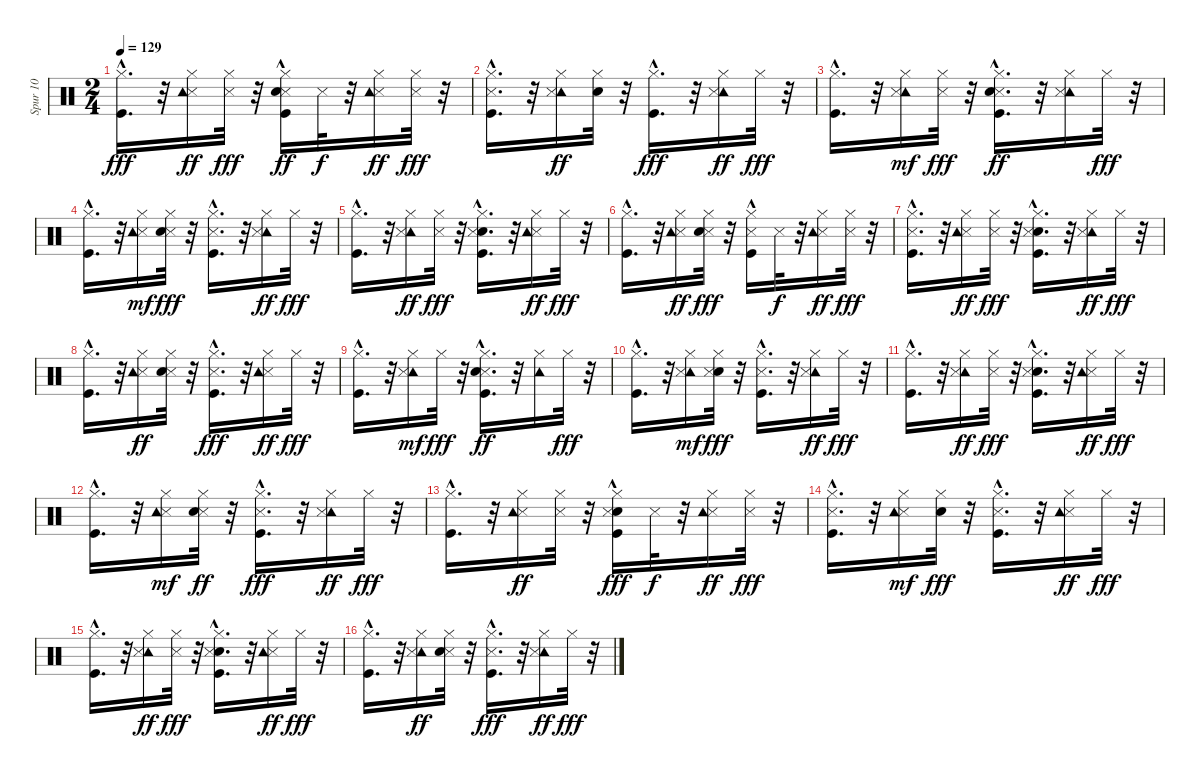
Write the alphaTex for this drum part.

\track ("Spur 10" "Spur 10") {instrument percussion}
\staff {score}
\articulation defaults
\ts (2 4)
\tempo 129
\clef neutral
\ks c
("Hi-Hat (closed)" "Kick (hit)"{hac}).16{d dy fff} r.32 ("Snare (side stick) 3" "Tambourine (hit)" "Hi-Hat (closed)").16{dy ff} ("Snare (side stick) 3" "Hi-Hat (closed)").32{dy fff} r.32 ("Snare (side stick) 3" "Kick (hit)"{hac} "Snare (hit) 2" "Hi-Hat (closed)").16{dy ff} "Snare (side stick) 3".32{dy f} r.32 ("Snare (side stick) 3" "Hi-Hat (closed)" "Tambourine (hit)").16{dy ff} ("Snare (side stick) 3" "Hi-Hat (closed)").32{dy fff} r.32 |
("Kick (hit)"{hac} "Snare (side stick) 3" "Hi-Hat (closed)").16{d} r.32 ("Tambourine (hit)" "Hi-Hat (closed)" "Snare (side stick) 3").16{dy ff} ("Hi-Hat (closed)" "Snare (hit) 2").32 r.32 ("Kick (hit)"{hac} "Hi-Hat (closed)").16{d dy fff} r.32 ("Tambourine (hit)" "Snare (side stick) 3" "Hi-Hat (closed)").16{dy ff} "Hi-Hat (closed)".32{dy fff} r.32 |
("Kick (hit)"{hac} "Hi-Hat (closed)").16{d} r.32 ("Hi-Hat (closed)" "Tambourine (hit)" "Snare (side stick) 3").16{dy mf} ("Hi-Hat (closed)" "Snare (side stick) 3").32{dy fff} r.32 ("Kick (hit)"{hac} "Hi-Hat (closed)" "Snare (side stick) 3" "Snare (hit) 2").16{d dy ff} r.32 ("Tambourine (hit)" "Hi-Hat (closed)" "Snare (side stick) 3").16 "Hi-Hat (closed)".32{dy fff} r.32 |
("Kick (hit)"{hac} "Hi-Hat (closed)").16{d} r.32 ("Snare (side stick) 3" "Hi-Hat (closed)" "Tambourine (hit)").16{dy mf} ("Snare (side stick) 3" "Snare (hit) 2" "Hi-Hat (closed)").32{dy fff} r.32 ("Kick (hit)"{hac} "Hi-Hat (closed)" "Snare (side stick) 3").16{d} r.32 ("Tambourine (hit)" "Hi-Hat (closed)" "Snare (side stick) 3").16{dy ff} "Hi-Hat (closed)".32{dy fff} r.32 |
("Hi-Hat (closed)" "Kick (hit)"{hac}).16{d} r.32 ("Tambourine (hit)" "Snare (side stick) 3" "Hi-Hat (closed)").16{dy ff} ("Snare (side stick) 3" "Hi-Hat (closed)").32{dy fff} r.32 ("Snare (hit) 2" "Hi-Hat (closed)" "Kick (hit)"{hac} "Snare (side stick) 3").16{d} r.32 ("Snare (side stick) 3" "Tambourine (hit)" "Hi-Hat (closed)").16{dy ff} "Hi-Hat (closed)".32{dy fff} r.32 |
("Hi-Hat (closed)" "Kick (hit)"{hac}).16{d} r.32 ("Snare (side stick) 3" "Tambourine (hit)" "Hi-Hat (closed)").16{dy ff} ("Snare (side stick) 3" "Snare (hit) 2" "Hi-Hat (closed)").32{dy fff} r.32 ("Kick (hit)"{hac} "Snare (side stick) 3" "Hi-Hat (closed)").16 "Snare (side stick) 3".32{dy f} r.32 ("Snare (side stick) 3" "Hi-Hat (closed)" "Tambourine (hit)").16{dy ff} ("Hi-Hat (closed)" "Snare (side stick) 3").32{dy fff} r.32 |
("Hi-Hat (closed)" "Kick (hit)"{hac} "Snare (side stick) 3").16{d} r.32 ("Snare (side stick) 3" "Tambourine (hit)" "Hi-Hat (closed)").16{dy ff} ("Snare (side stick) 3" "Hi-Hat (closed)").32{dy fff} r.32 ("Snare (hit) 2" "Snare (side stick) 3" "Hi-Hat (closed)" "Kick (hit)"{hac}).16{d} r.32 ("Tambourine (hit)" "Hi-Hat (closed)" "Snare (side stick) 3").16{dy ff} "Hi-Hat (closed)".32{dy fff} r.32 |
("Kick (hit)"{hac} "Hi-Hat (closed)").16{d} r.32 ("Snare (side stick) 3" "Tambourine (hit)" "Hi-Hat (closed)").16{dy ff} ("Hi-Hat (closed)" "Snare (side stick) 3" "Snare (hit) 2").32 r.32 ("Snare (side stick) 3" "Hi-Hat (closed)" "Kick (hit)"{hac}).16{d dy fff} r.32 ("Snare (side stick) 3" "Tambourine (hit)" "Hi-Hat (closed)").16{dy ff} "Hi-Hat (closed)".32{dy fff} r.32 |
("Hi-Hat (closed)" "Kick (hit)"{hac}).16{d} r.32 ("Hi-Hat (closed)" "Tambourine (hit)" "Snare (side stick) 3").16{dy mf} "Hi-Hat (closed)".32{dy fff} r.32 ("Snare (side stick) 3" "Hi-Hat (closed)" "Kick (hit)"{hac} "Snare (hit) 2").16{d dy ff} r.32 ("Tambourine (hit)" "Hi-Hat (closed)").16 "Hi-Hat (closed)".32{dy fff} r.32 |
("Hi-Hat (closed)" "Kick (hit)"{hac}).16{d} r.32 ("Hi-Hat (closed)" "Tambourine (hit)" "Snare (side stick) 3").16{dy mf} ("Snare (hit) 2" "Hi-Hat (closed)" "Snare (side stick) 3").32{dy fff} r.32 ("Hi-Hat (closed)" "Kick (hit)"{hac} "Snare (side stick) 3").16{d} r.32 ("Hi-Hat (closed)" "Tambourine (hit)" "Snare (side stick) 3").16{dy ff} "Hi-Hat (closed)".32{dy fff} r.32 |
("Hi-Hat (closed)" "Kick (hit)"{hac}).16{d} r.32 ("Tambourine (hit)" "Hi-Hat (closed)" "Snare (side stick) 3").16{dy ff} ("Hi-Hat (closed)" "Snare (side stick) 3").32{dy fff} r.32 ("Snare (hit) 2" "Kick (hit)"{hac} "Snare (side stick) 3" "Hi-Hat (closed)").16{d} r.32 ("Snare (side stick) 3" "Tambourine (hit)" "Hi-Hat (closed)").16{dy ff} "Hi-Hat (closed)".32{dy fff} r.32 |
("Kick (hit)"{hac} "Hi-Hat (closed)").16{d} r.32 ("Hi-Hat (closed)" "Snare (side stick) 3" "Tambourine (hit)").16{dy mf} ("Snare (side stick) 3" "Hi-Hat (closed)" "Snare (hit) 2").32{dy ff} r.32 ("Kick (hit)"{hac} "Hi-Hat (closed)" "Snare (side stick) 3").16{d dy fff} r.32 ("Tambourine (hit)" "Snare (side stick) 3" "Hi-Hat (closed)").16{dy ff} "Hi-Hat (closed)".32{dy fff} r.32 |
("Hi-Hat (closed)" "Kick (hit)"{hac}).16{d} r.32 ("Snare (side stick) 3" "Tambourine (hit)" "Hi-Hat (closed)").16{dy ff} ("Hi-Hat (closed)" "Snare (side stick) 3").32 r.32 ("Snare (hit) 2" "Snare (side stick) 3" "Kick (hit)"{hac} "Hi-Hat (closed)").16{dy fff} "Snare (side stick) 3".32{dy f} r.32 ("Snare (side stick) 3" "Tambourine (hit)" "Hi-Hat (closed)").16{dy ff} ("Snare (side stick) 3" "Hi-Hat (closed)").32{dy fff} r.32 |
("Snare (side stick) 3" "Hi-Hat (closed)" "Kick (hit)"{hac}).16{d} r.32 ("Hi-Hat (closed)" "Snare (side stick) 3" "Tambourine (hit)").16{dy mf} ("Snare (hit) 2" "Hi-Hat (closed)").32{dy fff} r.32 ("Hi-Hat (closed)" "Snare (side stick) 3" "Kick (hit)"{hac}).16{d} r.32 ("Snare (side stick) 3" "Hi-Hat (closed)" "Tambourine (hit)").16{dy ff} "Hi-Hat (closed)".32{dy fff} r.32 |
("Kick (hit)"{hac} "Hi-Hat (closed)").16{d} r.32 ("Tambourine (hit)" "Hi-Hat (closed)" "Snare (side stick) 3").16{dy ff} ("Hi-Hat (closed)" "Snare (side stick) 3").32{dy fff} r.32 ("Snare (hit) 2" "Snare (side stick) 3" "Kick (hit)"{hac} "Hi-Hat (closed)").16{d} r.32 ("Snare (side stick) 3" "Tambourine (hit)" "Hi-Hat (closed)").16{dy ff} "Hi-Hat (closed)".32{dy fff} r.32 |
("Kick (hit)"{hac} "Hi-Hat (closed)").16{d} r.32 ("Tambourine (hit)" "Hi-Hat (closed)" "Snare (side stick) 3").16{dy ff} ("Hi-Hat (closed)" "Snare (side stick) 3" "Snare (hit) 2").32 r.32 ("Snare (side stick) 3" "Hi-Hat (closed)" "Kick (hit)"{hac}).16{d dy fff} r.32 ("Tambourine (hit)" "Snare (side stick) 3" "Hi-Hat (closed)").16{dy ff} "Hi-Hat (closed)".32{dy fff} r.32
